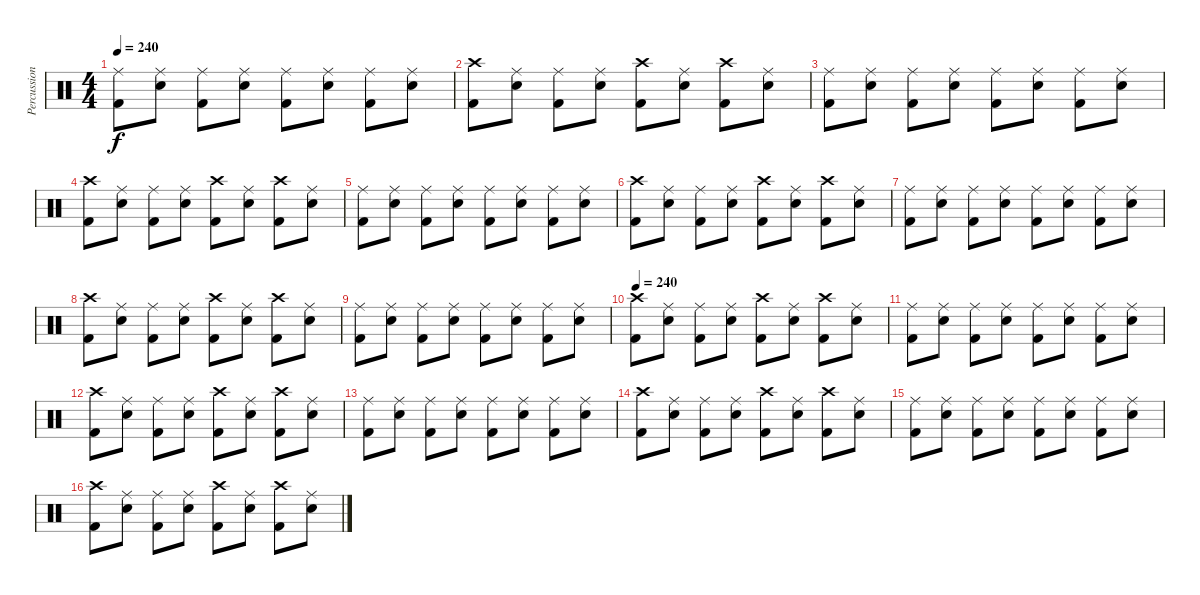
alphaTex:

\track ("Percussion" "Percussion") {instrument percussion}
\staff {score}
\articulation defaults
\ts (4 4)
\tempo 240
\clef neutral
\ks c
("Kick (hit) 2" "Ride (middle)").8{dy f} ("Snare (hit) 2" "Ride (middle)").8 ("Kick (hit) 2" "Ride (middle)").8 ("Snare (hit) 2" "Ride (middle)").8 ("Kick (hit) 2" "Ride (middle)").8 ("Snare (hit) 2" "Ride (middle)").8 ("Kick (hit) 2" "Ride (middle)").8 ("Snare (hit) 2" "Ride (middle)").8 |
("Kick (hit) 2" "Crash high (hit)").8 ("Snare (hit) 2" "Ride (middle)").8 ("Kick (hit) 2" "Ride (middle)").8 ("Snare (hit) 2" "Ride (middle)").8 ("Kick (hit) 2" "Crash high (hit)").8 ("Snare (hit) 2" "Ride (middle)").8 ("Kick (hit) 2" "Crash high (hit)").8 ("Snare (hit) 2" "Ride (middle)").8 |
("Kick (hit) 2" "Ride (middle)").8 ("Snare (hit) 2" "Ride (middle)").8 ("Kick (hit) 2" "Ride (middle)").8 ("Snare (hit) 2" "Ride (middle)").8 ("Kick (hit) 2" "Ride (middle)").8 ("Snare (hit) 2" "Ride (middle)").8 ("Kick (hit) 2" "Ride (middle)").8 ("Snare (hit) 2" "Ride (middle)").8 |
("Kick (hit) 2" "Crash high (hit)").8 ("Snare (hit) 2" "Ride (middle)").8 ("Kick (hit) 2" "Ride (middle)").8 ("Snare (hit) 2" "Ride (middle)").8 ("Kick (hit) 2" "Crash high (hit)").8 ("Snare (hit) 2" "Ride (middle)").8 ("Kick (hit) 2" "Crash high (hit)").8 ("Snare (hit) 2" "Ride (middle)").8 |
("Kick (hit) 2" "Ride (middle)").8 ("Snare (hit) 2" "Ride (middle)").8 ("Kick (hit) 2" "Ride (middle)").8 ("Snare (hit) 2" "Ride (middle)").8 ("Kick (hit) 2" "Ride (middle)").8 ("Snare (hit) 2" "Ride (middle)").8 ("Kick (hit) 2" "Ride (middle)").8 ("Snare (hit) 2" "Ride (middle)").8 |
("Kick (hit) 2" "Crash high (hit)").8 ("Snare (hit) 2" "Ride (middle)").8 ("Kick (hit) 2" "Ride (middle)").8 ("Snare (hit) 2" "Ride (middle)").8 ("Kick (hit) 2" "Crash high (hit)").8 ("Snare (hit) 2" "Ride (middle)").8 ("Kick (hit) 2" "Crash high (hit)").8 ("Snare (hit) 2" "Ride (middle)").8 |
("Kick (hit) 2" "Ride (middle)").8 ("Snare (hit) 2" "Ride (middle)").8 ("Kick (hit) 2" "Ride (middle)").8 ("Snare (hit) 2" "Ride (middle)").8 ("Kick (hit) 2" "Ride (middle)").8 ("Snare (hit) 2" "Ride (middle)").8 ("Kick (hit) 2" "Ride (middle)").8 ("Snare (hit) 2" "Ride (middle)").8 |
("Kick (hit) 2" "Crash high (hit)").8 ("Snare (hit) 2" "Ride (middle)").8 ("Kick (hit) 2" "Ride (middle)").8 ("Snare (hit) 2" "Ride (middle)").8 ("Kick (hit) 2" "Crash high (hit)").8 ("Snare (hit) 2" "Ride (middle)").8 ("Kick (hit) 2" "Crash high (hit)").8 ("Snare (hit) 2" "Ride (middle)").8 |
("Kick (hit) 2" "Ride (middle)").8 ("Snare (hit) 2" "Ride (middle)").8 ("Kick (hit) 2" "Ride (middle)").8 ("Snare (hit) 2" "Ride (middle)").8 ("Kick (hit) 2" "Ride (middle)").8 ("Snare (hit) 2" "Ride (middle)").8 ("Kick (hit) 2" "Ride (middle)").8 ("Snare (hit) 2" "Ride (middle)").8 |
\tempo 240
("Kick (hit) 2" "Crash high (hit)").8 ("Snare (hit) 2" "Ride (middle)").8 ("Kick (hit) 2" "Ride (middle)").8 ("Snare (hit) 2" "Ride (middle)").8 ("Kick (hit) 2" "Crash high (hit)").8 ("Snare (hit) 2" "Ride (middle)").8 ("Kick (hit) 2" "Crash high (hit)").8 ("Snare (hit) 2" "Ride (middle)").8 |
("Kick (hit) 2" "Ride (middle)").8 ("Snare (hit) 2" "Ride (middle)").8 ("Kick (hit) 2" "Ride (middle)").8 ("Snare (hit) 2" "Ride (middle)").8 ("Kick (hit) 2" "Ride (middle)").8 ("Snare (hit) 2" "Ride (middle)").8 ("Kick (hit) 2" "Ride (middle)").8 ("Snare (hit) 2" "Ride (middle)").8 |
("Kick (hit) 2" "Crash high (hit)").8 ("Snare (hit) 2" "Ride (middle)").8 ("Kick (hit) 2" "Ride (middle)").8 ("Snare (hit) 2" "Ride (middle)").8 ("Kick (hit) 2" "Crash high (hit)").8 ("Snare (hit) 2" "Ride (middle)").8 ("Kick (hit) 2" "Crash high (hit)").8 ("Snare (hit) 2" "Ride (middle)").8 |
("Kick (hit) 2" "Ride (middle)").8 ("Snare (hit) 2" "Ride (middle)").8 ("Kick (hit) 2" "Ride (middle)").8 ("Snare (hit) 2" "Ride (middle)").8 ("Kick (hit) 2" "Ride (middle)").8 ("Snare (hit) 2" "Ride (middle)").8 ("Kick (hit) 2" "Ride (middle)").8 ("Snare (hit) 2" "Ride (middle)").8 |
("Kick (hit) 2" "Crash high (hit)").8 ("Snare (hit) 2" "Ride (middle)").8 ("Kick (hit) 2" "Ride (middle)").8 ("Snare (hit) 2" "Ride (middle)").8 ("Kick (hit) 2" "Crash high (hit)").8 ("Snare (hit) 2" "Ride (middle)").8 ("Kick (hit) 2" "Crash high (hit)").8 ("Snare (hit) 2" "Ride (middle)").8 |
("Kick (hit) 2" "Ride (middle)").8 ("Snare (hit) 2" "Ride (middle)").8 ("Kick (hit) 2" "Ride (middle)").8 ("Snare (hit) 2" "Ride (middle)").8 ("Kick (hit) 2" "Ride (middle)").8 ("Snare (hit) 2" "Ride (middle)").8 ("Kick (hit) 2" "Ride (middle)").8 ("Snare (hit) 2" "Ride (middle)").8 |
("Kick (hit) 2" "Crash high (hit)").8 ("Snare (hit) 2" "Ride (middle)").8 ("Kick (hit) 2" "Ride (middle)").8 ("Snare (hit) 2" "Ride (middle)").8 ("Kick (hit) 2" "Crash high (hit)").8 ("Snare (hit) 2" "Ride (middle)").8 ("Kick (hit) 2" "Crash high (hit)").8 ("Snare (hit) 2" "Ride (middle)").8
